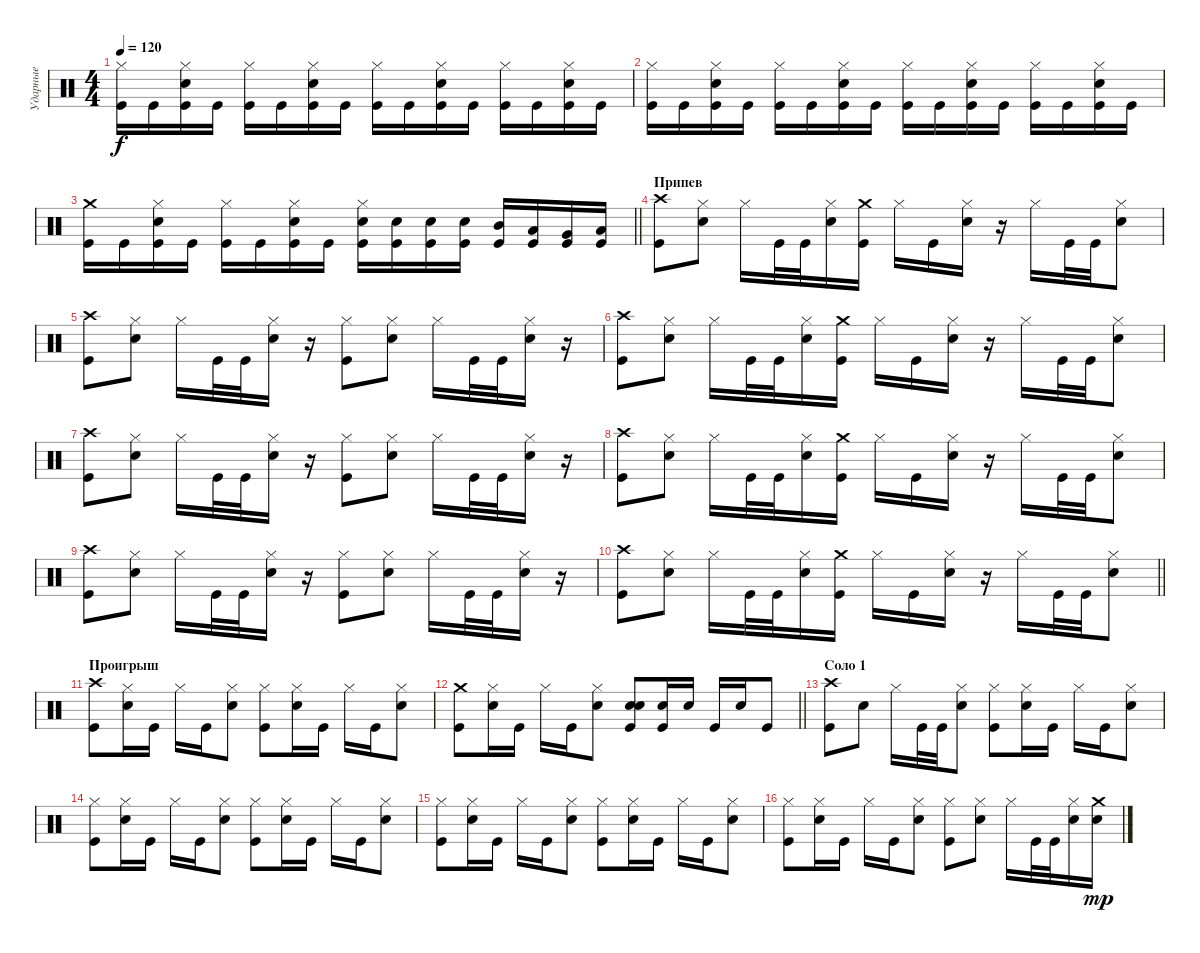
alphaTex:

\track ("Ударные" "Ударные") {instrument percussion}
\staff {score}
\articulation defaults
\ts (4 4)
\tempo 120
\clef neutral
\ks c
("Hi-Hat (closed)" "Kick (hit)").16{dy f} "Kick (hit)".16 ("Hi-Hat (closed)" "Snare (hit) 2" "Kick (hit)").16 "Kick (hit)".16 ("Hi-Hat (closed)" "Kick (hit)").16 "Kick (hit)".16 ("Hi-Hat (closed)" "Snare (hit) 2" "Kick (hit)").16 "Kick (hit)".16 ("Hi-Hat (closed)" "Kick (hit)").16 "Kick (hit)".16 ("Hi-Hat (closed)" "Snare (hit) 2" "Kick (hit)").16 "Kick (hit)".16 ("Hi-Hat (closed)" "Kick (hit)").16 "Kick (hit)".16 ("Hi-Hat (closed)" "Snare (hit) 2" "Kick (hit)").16 "Kick (hit)".16 |
("Hi-Hat (closed)" "Kick (hit)").16 "Kick (hit)".16 ("Hi-Hat (closed)" "Snare (hit) 2" "Kick (hit)").16 "Kick (hit)".16 ("Hi-Hat (closed)" "Kick (hit)").16 "Kick (hit)".16 ("Hi-Hat (closed)" "Snare (hit) 2" "Kick (hit)").16 "Kick (hit)".16 ("Hi-Hat (closed)" "Kick (hit)").16 "Kick (hit)".16 ("Hi-Hat (closed)" "Snare (hit) 2" "Kick (hit)").16 "Kick (hit)".16 ("Hi-Hat (closed)" "Kick (hit)").16 "Kick (hit)".16 ("Hi-Hat (closed)" "Snare (hit) 2" "Kick (hit)").16 "Kick (hit)".16 |
\barLineRight lightlight
("Crash medium (hit)" "Kick (hit)").16 "Kick (hit)".16 ("Hi-Hat (closed)" "Snare (hit) 2" "Kick (hit)").16 "Kick (hit)".16 ("Hi-Hat (closed)" "Kick (hit)").16 "Kick (hit)".16 ("Hi-Hat (closed)" "Snare (hit) 2" "Kick (hit)").16 "Kick (hit)".16 ("Hi-Hat (closed)" "Snare (hit) 2" "Kick (hit)").16 ("Snare (hit) 2" "Kick (hit)").16 ("Snare (hit) 2" "Kick (hit)").16 ("Snare (hit) 2" "Kick (hit)").16 ("Mid Tom (hit)" "Kick (hit)").16 ("Low Tom (hit)" "Kick (hit)").16 ("Very Low Tom (hit)" "Kick (hit)").16 ("Low Floor Tom (hit)" "Kick (hit)").16 |
\section ("" "Припев")
("Crash high (hit)" "Kick (hit)").8 ("Hi-Hat (closed)" "Snare (hit) 2").8 "Hi-Hat (closed)".16 "Kick (hit)".32 "Kick (hit)".32 ("Hi-Hat (closed)" "Snare (hit) 2").16 ("Crash medium (hit)" "Kick (hit)").16 "Hi-Hat (closed)".16 "Kick (hit)".16 ("Hi-Hat (closed)" "Snare (hit) 2").16 r.16 "Hi-Hat (closed)".16 "Kick (hit)".32 "Kick (hit)".32 ("Hi-Hat (closed)" "Snare (hit) 2").8 |
("Crash high (hit)" "Kick (hit)").8 ("Hi-Hat (closed)" "Snare (hit) 2").8 "Hi-Hat (closed)".16 "Kick (hit)".32 "Kick (hit)".32 ("Hi-Hat (closed)" "Snare (hit) 2").16 r.16 ("Hi-Hat (closed)" "Kick (hit)").8 ("Hi-Hat (closed)" "Snare (hit) 2").8 "Hi-Hat (closed)".16 "Kick (hit)".32 "Kick (hit)".32 ("Hi-Hat (closed)" "Snare (hit) 2").16 r.16 |
("Crash high (hit)" "Kick (hit)").8 ("Hi-Hat (closed)" "Snare (hit) 2").8 "Hi-Hat (closed)".16 "Kick (hit)".32 "Kick (hit)".32 ("Hi-Hat (closed)" "Snare (hit) 2").16 ("Crash medium (hit)" "Kick (hit)").16 "Hi-Hat (closed)".16 "Kick (hit)".16 ("Hi-Hat (closed)" "Snare (hit) 2").16 r.16 "Hi-Hat (closed)".16 "Kick (hit)".32 "Kick (hit)".32 ("Hi-Hat (closed)" "Snare (hit) 2").8 |
("Crash high (hit)" "Kick (hit)").8 ("Hi-Hat (closed)" "Snare (hit) 2").8 "Hi-Hat (closed)".16 "Kick (hit)".32 "Kick (hit)".32 ("Hi-Hat (closed)" "Snare (hit) 2").16 r.16 ("Hi-Hat (closed)" "Kick (hit)").8 ("Hi-Hat (closed)" "Snare (hit) 2").8 "Hi-Hat (closed)".16 "Kick (hit)".32 "Kick (hit)".32 ("Hi-Hat (closed)" "Snare (hit) 2").16 r.16 |
("Crash high (hit)" "Kick (hit)").8 ("Hi-Hat (closed)" "Snare (hit) 2").8 "Hi-Hat (closed)".16 "Kick (hit)".32 "Kick (hit)".32 ("Hi-Hat (closed)" "Snare (hit) 2").16 ("Crash medium (hit)" "Kick (hit)").16 "Hi-Hat (closed)".16 "Kick (hit)".16 ("Hi-Hat (closed)" "Snare (hit) 2").16 r.16 "Hi-Hat (closed)".16 "Kick (hit)".32 "Kick (hit)".32 ("Hi-Hat (closed)" "Snare (hit) 2").8 |
("Crash high (hit)" "Kick (hit)").8 ("Hi-Hat (closed)" "Snare (hit) 2").8 "Hi-Hat (closed)".16 "Kick (hit)".32 "Kick (hit)".32 ("Hi-Hat (closed)" "Snare (hit) 2").16 r.16 ("Hi-Hat (closed)" "Kick (hit)").8 ("Hi-Hat (closed)" "Snare (hit) 2").8 "Hi-Hat (closed)".16 "Kick (hit)".32 "Kick (hit)".32 ("Hi-Hat (closed)" "Snare (hit) 2").16 r.16 |
\barLineRight lightlight
("Crash high (hit)" "Kick (hit)").8 ("Hi-Hat (closed)" "Snare (hit) 2").8 "Hi-Hat (closed)".16 "Kick (hit)".32 "Kick (hit)".32 ("Hi-Hat (closed)" "Snare (hit) 2").16 ("Crash medium (hit)" "Kick (hit)").16 "Hi-Hat (closed)".16 "Kick (hit)".16 ("Hi-Hat (closed)" "Snare (hit) 2").16 r.16 "Hi-Hat (closed)".16 "Kick (hit)".32 "Kick (hit)".32 ("Hi-Hat (closed)" "Snare (hit) 2").8 |
\section ("" "Проигрыш")
("Crash high (hit)" "Kick (hit)").8 ("Hi-Hat (closed)" "Snare (hit) 2").16 "Kick (hit)".16 "Hi-Hat (closed)".16 "Kick (hit)".16 ("Hi-Hat (closed)" "Snare (hit) 2").8 ("Hi-Hat (closed)" "Kick (hit)").8 ("Hi-Hat (closed)" "Snare (hit) 2").16 "Kick (hit)".16 "Hi-Hat (closed)".16 "Kick (hit)".16 ("Hi-Hat (closed)" "Snare (hit) 2").8 |
\barLineRight lightlight
("Crash medium (hit)" "Kick (hit)").8 ("Hi-Hat (closed)" "Snare (hit) 2").16 "Kick (hit)".16 "Hi-Hat (closed)".16 "Kick (hit)".16 ("Hi-Hat (closed)" "Snare (hit) 2").8 ("Snare (hit) 2" "Snare (hit) 2" "Kick (hit)").8 ("Snare (hit) 2" "Kick (hit)").16 "Snare (hit) 2".16 "Kick (hit)".16 "Snare (hit) 2".16 "Kick (hit)".8 |
\section ("" "Соло 1")
("Crash high (hit)" "Kick (hit)").8 "Snare (hit) 2".8 "Hi-Hat (closed)".16 "Kick (hit)".32 "Kick (hit)".32 ("Hi-Hat (closed)" "Snare (hit) 2").8 ("Hi-Hat (closed)" "Kick (hit)").8 ("Hi-Hat (closed)" "Snare (hit) 2").16 "Kick (hit)".16 "Hi-Hat (closed)".16 "Kick (hit)".16 ("Hi-Hat (closed)" "Snare (hit) 2").8 |
("Hi-Hat (closed)" "Kick (hit)").8 ("Hi-Hat (closed)" "Snare (hit) 2").16 "Kick (hit)".16 "Hi-Hat (closed)".16 "Kick (hit)".16 ("Hi-Hat (closed)" "Snare (hit) 2").8 ("Hi-Hat (closed)" "Kick (hit)").8 ("Hi-Hat (closed)" "Snare (hit) 2").16 "Kick (hit)".16 "Hi-Hat (closed)".16 "Kick (hit)".16 ("Hi-Hat (closed)" "Snare (hit) 2").8 |
("Hi-Hat (closed)" "Kick (hit)").8 ("Hi-Hat (closed)" "Snare (hit) 2").16 "Kick (hit)".16 "Hi-Hat (closed)".16 "Kick (hit)".16 ("Hi-Hat (closed)" "Snare (hit) 2").8 ("Hi-Hat (closed)" "Kick (hit)").8 ("Hi-Hat (closed)" "Snare (hit) 2").16 "Kick (hit)".16 "Hi-Hat (closed)".16 "Kick (hit)".16 ("Hi-Hat (closed)" "Snare (hit) 2").8 |
("Hi-Hat (closed)" "Kick (hit)").8 ("Hi-Hat (closed)" "Snare (hit) 2").16 "Kick (hit)".16 "Hi-Hat (closed)".16 "Kick (hit)".16 ("Hi-Hat (closed)" "Snare (hit) 2").8 ("Hi-Hat (closed)" "Kick (hit)").8 ("Hi-Hat (closed)" "Snare (hit) 2").8 "Hi-Hat (closed)".16 "Kick (hit)".32 "Kick (hit)".32 ("Hi-Hat (closed)" "Snare (hit) 2").16 ("Crash medium (hit)" "Snare (hit) 2").16{dy mp}
